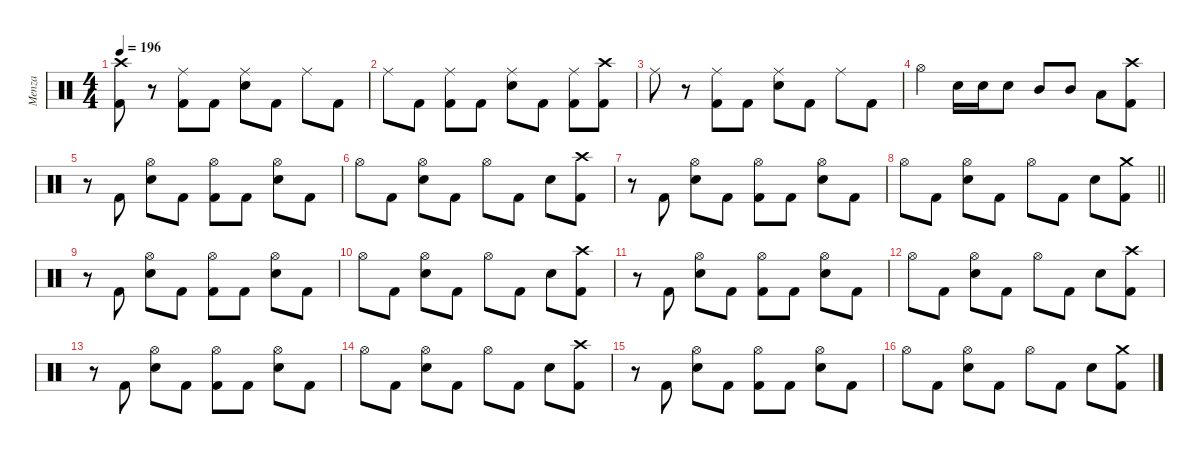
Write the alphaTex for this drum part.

\defaultSystemsLayout 4
\hideDynamics
\bracketExtendMode nobrackets
\firstSystemTrackNameMode fullname
\otherSystemsTrackNameOrientation horizontal
\track ("Menza" "drm.") {instrument percussion}
\staff {score}
\articulation defaults
\ts (4 4)
\tempo 196
\clef neutral
\ks c
("Crash high (hit)" "Kick (hit) 2").8{dy f beam Down} r.8{beam Down} ("Ride (middle)" "Kick (hit) 2").8{dy ff beam Down} "Kick (hit) 2".8{dy fff beam Down} ("Ride (middle)" "Snare (hit) 2").8{dy ff beam Down} "Kick (hit) 2".8{dy fff beam Down} "Ride (middle)".8{dy ff beam Down} "Kick (hit) 2".8{dy fff beam Down} |
"Ride (middle)".8{dy ff beam Down} "Kick (hit) 2".8{dy fff beam Down} ("Ride (middle)" "Kick (hit) 2").8{dy ff beam Down} "Kick (hit) 2".8{dy fff beam Down} ("Ride (middle)" "Snare (hit) 2").8{dy ff beam Down} "Kick (hit) 2".8{dy fff beam Down} ("Ride (middle)" "Kick (hit) 2").8{dy f beam Down} ("Crash high (hit)" "Kick (hit) 2").8{beam Down} |
"Ride (middle)".8{beam Down} r.8{beam Down} ("Ride (middle)" "Kick (hit) 2").8{dy ff beam Down} "Kick (hit) 2".8{dy fff beam Down} ("Ride (middle)" "Snare (hit) 2").8{dy ff beam Down} "Kick (hit) 2".8{dy fff beam Down} "Ride (middle)".8{dy ff beam Down} "Kick (hit) 2".8{dy fff beam Down} |
"Hi-Hat (open)".4{dy f beam Down} "Snare (hit) 2".16{beam Down} "Snare (hit) 2".16{beam Down} "Snare (hit) 2".8{beam Down} "Mid Tom (hit)".8{beam Up} "Mid Tom (hit)".8{dy ff beam Up} "Low Tom (hit)".8{beam Down} ("Crash high (hit)" "Kick (hit) 2").8{beam Down} |
r.8{beam Down} "Kick (hit) 2".8{dy fff beam Up} ("Hi-Hat (open)" "Snare (hit) 2").8{dy f beam Down} "Kick (hit) 2".8{dy fff beam Down} ("Hi-Hat (open)" "Kick (hit) 2").8{dy f beam Down} "Kick (hit) 2".8{dy fff beam Down} ("Hi-Hat (open)" "Snare (hit) 2").8{dy f beam Down} "Kick (hit) 2".8{dy fff beam Down} |
"Hi-Hat (open)".8{dy f beam Down} "Kick (hit) 2".8{dy fff beam Down} ("Hi-Hat (open)" "Snare (hit) 2").8{dy f beam Down} "Kick (hit) 2".8{dy fff beam Down} "Hi-Hat (open)".8{dy f beam Down} "Kick (hit) 2".8{dy fff beam Down} "Snare (hit) 2".8{beam Down} ("Crash high (hit)" "Kick (hit) 2").8{beam Down} |
r.8{beam Down} "Kick (hit) 2".8{beam Up} ("Hi-Hat (open)" "Snare (hit) 2").8{dy f beam Down} "Kick (hit) 2".8{dy fff beam Down} ("Hi-Hat (open)" "Kick (hit) 2").8{dy f beam Down} "Kick (hit) 2".8{dy fff beam Down} ("Hi-Hat (open)" "Snare (hit) 2").8{dy f beam Down} "Kick (hit) 2".8{dy fff beam Down} |
\barLineRight lightlight "Hi-Hat (open)".8{dy f beam Down} "Kick (hit) 2".8{dy fff beam Down}
("Hi-Hat (open)" "Snare (hit) 2").8{dy f beam Down} "Kick (hit) 2".8{dy fff beam Down} "Hi-Hat (open)".8{dy f beam Down} "Kick (hit) 2".8{dy fff beam Down} "Snare (hit) 2".8{beam Down} ("Crash medium (hit)" "Kick (hit) 2").8{beam Down} |
r.8{beam Down} "Kick (hit) 2".8{beam Up} ("Hi-Hat (open)" "Snare (hit) 2").8{dy f beam Down} "Kick (hit) 2".8{dy fff beam Down} ("Hi-Hat (open)" "Kick (hit) 2").8{dy f beam Down} "Kick (hit) 2".8{dy fff beam Down} ("Hi-Hat (open)" "Snare (hit) 2").8{dy f beam Down} "Kick (hit) 2".8{dy fff beam Down} |
"Hi-Hat (open)".8{dy f beam Down} "Kick (hit) 2".8{dy fff beam Down} ("Hi-Hat (open)" "Snare (hit) 2").8{dy f beam Down} "Kick (hit) 2".8{dy fff beam Down} "Hi-Hat (open)".8{dy f beam Down} "Kick (hit) 2".8{dy fff beam Down} "Snare (hit) 2".8{beam Down} ("Crash high (hit)" "Kick (hit) 2").8{beam Down} |
r.8{beam Down} "Kick (hit) 2".8{beam Up} ("Hi-Hat (open)" "Snare (hit) 2").8{dy f beam Down} "Kick (hit) 2".8{dy fff beam Down} ("Hi-Hat (open)" "Kick (hit) 2").8{dy f beam Down} "Kick (hit) 2".8{dy fff beam Down} ("Hi-Hat (open)" "Snare (hit) 2").8{dy f beam Down} "Kick (hit) 2".8{dy fff beam Down} |
"Hi-Hat (open)".8{dy f beam Down} "Kick (hit) 2".8{dy fff beam Down} ("Hi-Hat (open)" "Snare (hit) 2").8{dy f beam Down} "Kick (hit) 2".8{dy fff beam Down} "Hi-Hat (open)".8{dy f beam Down} "Kick (hit) 2".8{dy fff beam Down} "Snare (hit) 2".8{beam Down} ("Crash high (hit)" "Kick (hit) 2").8{beam Down} |
r.8{beam Down} "Kick (hit) 2".8{beam Up} ("Hi-Hat (open)" "Snare (hit) 2").8{dy f beam Down} "Kick (hit) 2".8{dy fff beam Down} ("Hi-Hat (open)" "Kick (hit) 2").8{dy f beam Down} "Kick (hit) 2".8{dy fff beam Down} ("Hi-Hat (open)" "Snare (hit) 2").8{dy f beam Down} "Kick (hit) 2".8{dy fff beam Down} |
"Hi-Hat (open)".8{dy f beam Down} "Kick (hit) 2".8{dy fff beam Down} ("Hi-Hat (open)" "Snare (hit) 2").8{dy f beam Down} "Kick (hit) 2".8{dy fff beam Down} "Hi-Hat (open)".8{dy f beam Down} "Kick (hit) 2".8{dy fff beam Down} "Snare (hit) 2".8{beam Down} ("Crash high (hit)" "Kick (hit) 2").8{beam Down} |
r.8{beam Down} "Kick (hit) 2".8{beam Up} ("Hi-Hat (open)" "Snare (hit) 2").8{dy f beam Down} "Kick (hit) 2".8{dy fff beam Down} ("Hi-Hat (open)" "Kick (hit) 2").8{dy f beam Down} "Kick (hit) 2".8{dy fff beam Down} ("Hi-Hat (open)" "Snare (hit) 2").8{dy f beam Down} "Kick (hit) 2".8{dy fff beam Down} |
"Hi-Hat (open)".8{dy f beam Down} "Kick (hit) 2".8{dy fff beam Down} ("Hi-Hat (open)" "Snare (hit) 2").8{dy f beam Down} "Kick (hit) 2".8{dy fff beam Down} "Hi-Hat (open)".8{dy f beam Down} "Kick (hit) 2".8{dy fff beam Down} "Snare (hit) 2".8{beam Down} ("Crash medium (hit)" "Kick (hit) 2").8{beam Down}
